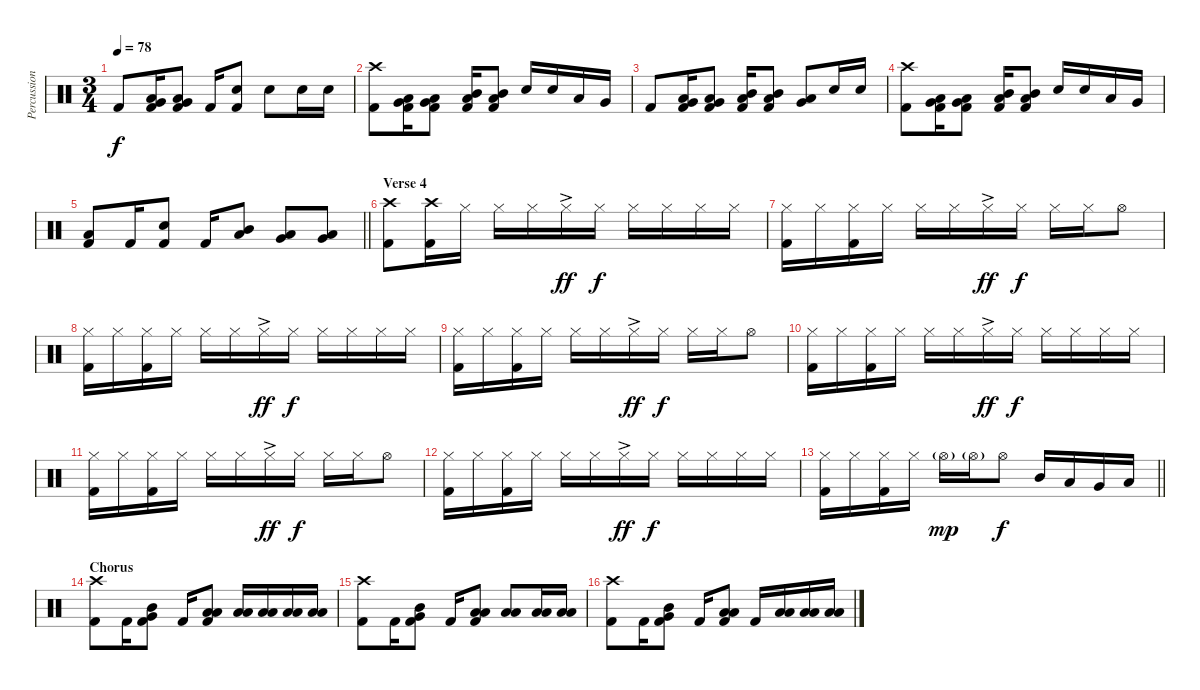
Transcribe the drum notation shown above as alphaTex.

\track ("Percussion" "Percussion") {instrument percussion}
\staff {score}
\articulation defaults
\ts (3 4)
\tempo 78
\clef neutral
\ks c "Kick (hit) 2".8{dy f}
("Low Tom (hit)" "Very Low Tom (hit)" "Kick (hit) 2").16 ("Low Tom (hit)" "Very Low Tom (hit)" "Kick (hit) 2").8 "Kick (hit) 2".16 ("Electric Snare (hit)" "Kick (hit) 2").8 "Electric Snare (hit)".8 "Electric Snare (hit)".16 "Electric Snare (hit)".16 |
("Crash high (hit)" "Kick (hit) 2").8 ("Low Tom (hit)" "Very Low Tom (hit)" "Kick (hit) 2").16 ("Low Tom (hit)" "Very Low Tom (hit)" "Kick (hit) 2").8 ("Mid Tom (hit)" "Low Tom (hit)" "Kick (hit) 2").16 ("Mid Tom (hit)" "Low Tom (hit)" "Kick (hit) 2").8 "Electric Snare (hit)".16 "Electric Snare (hit)".16 "Low Tom (hit)".16 "Very Low Tom (hit)".16 |
"Kick (hit) 2".8 ("Low Tom (hit)" "Very Low Tom (hit)" "Kick (hit) 2").16 ("Low Tom (hit)" "Very Low Tom (hit)" "Kick (hit) 2").8 ("Mid Tom (hit)" "Low Tom (hit)" "Kick (hit) 2").16 ("Mid Tom (hit)" "Low Tom (hit)" "Kick (hit) 2").8 ("Low Tom (hit)" "Very Low Tom (hit)").8 "Electric Snare (hit)".16 "Electric Snare (hit)".16 |
("Crash high (hit)" "Kick (hit) 2").8 ("Low Tom (hit)" "Very Low Tom (hit)" "Kick (hit) 2").16 ("Low Tom (hit)" "Very Low Tom (hit)" "Kick (hit) 2").8 ("Mid Tom (hit)" "Low Tom (hit)" "Kick (hit) 2").16 ("Mid Tom (hit)" "Low Tom (hit)" "Kick (hit) 2").8 "Electric Snare (hit)".16 "Electric Snare (hit)".16 "Low Tom (hit)".16 "Very Low Tom (hit)".16 |
\barLineRight lightlight
("Low Floor Tom (hit)" "Kick (hit) 2").8 "Kick (hit) 2".16 ("Electric Snare (hit)" "Kick (hit) 2").8 "Kick (hit) 2".16 ("Mid Tom (hit)" "Low Tom (hit)").8 ("Low Tom (hit)" "Very Low Tom (hit)").8 ("Very Low Tom (hit)" "Low Floor Tom (hit)").8 |
\section ("" "Verse 4")
("Crash high (hit)" "Kick (hit) 2").8 ("Crash high (hit)" "Kick (hit) 2").16 "Hi-Hat (closed)".16 "Hi-Hat (closed)".16 "Hi-Hat (closed)".16 "Hi-Hat (closed)"{ac}.16{dy ff} "Hi-Hat (closed)".16{dy f} "Hi-Hat (closed)".16 "Hi-Hat (closed)".16 "Hi-Hat (closed)".16 "Hi-Hat (closed)".16 |
("Hi-Hat (closed)" "Kick (hit) 2").16 "Hi-Hat (closed)".16 ("Hi-Hat (closed)" "Kick (hit) 2").16 "Hi-Hat (closed)".16 "Hi-Hat (closed)".16 "Hi-Hat (closed)".16 "Hi-Hat (closed)"{ac}.16{dy ff} "Hi-Hat (closed)".16{dy f} "Hi-Hat (closed)".16 "Hi-Hat (closed)".16 "Hi-Hat (open)".8 |
("Hi-Hat (closed)" "Kick (hit) 2").16 "Hi-Hat (closed)".16 ("Hi-Hat (closed)" "Kick (hit) 2").16 "Hi-Hat (closed)".16 "Hi-Hat (closed)".16 "Hi-Hat (closed)".16 "Hi-Hat (closed)"{ac}.16{dy ff} "Hi-Hat (closed)".16{dy f} "Hi-Hat (closed)".16 "Hi-Hat (closed)".16 "Hi-Hat (closed)".16 "Hi-Hat (closed)".16 |
("Hi-Hat (closed)" "Kick (hit) 2").16 "Hi-Hat (closed)".16 ("Hi-Hat (closed)" "Kick (hit) 2").16 "Hi-Hat (closed)".16 "Hi-Hat (closed)".16 "Hi-Hat (closed)".16 "Hi-Hat (closed)"{ac}.16{dy ff} "Hi-Hat (closed)".16{dy f} "Hi-Hat (closed)".16 "Hi-Hat (closed)".16 "Hi-Hat (open)".8 |
("Hi-Hat (closed)" "Kick (hit) 2").16 "Hi-Hat (closed)".16 ("Hi-Hat (closed)" "Kick (hit) 2").16 "Hi-Hat (closed)".16 "Hi-Hat (closed)".16 "Hi-Hat (closed)".16 "Hi-Hat (closed)"{ac}.16{dy ff} "Hi-Hat (closed)".16{dy f} "Hi-Hat (closed)".16 "Hi-Hat (closed)".16 "Hi-Hat (closed)".16 "Hi-Hat (closed)".16 |
("Hi-Hat (closed)" "Kick (hit) 2").16 "Hi-Hat (closed)".16 ("Hi-Hat (closed)" "Kick (hit) 2").16 "Hi-Hat (closed)".16 "Hi-Hat (closed)".16 "Hi-Hat (closed)".16 "Hi-Hat (closed)"{ac}.16{dy ff} "Hi-Hat (closed)".16{dy f} "Hi-Hat (closed)".16 "Hi-Hat (closed)".16 "Hi-Hat (open)".8 |
("Hi-Hat (closed)" "Kick (hit) 2").16 "Hi-Hat (closed)".16 ("Hi-Hat (closed)" "Kick (hit) 2").16 "Hi-Hat (closed)".16 "Hi-Hat (closed)".16 "Hi-Hat (closed)".16 "Hi-Hat (closed)"{ac}.16{dy ff} "Hi-Hat (closed)".16{dy f} "Hi-Hat (closed)".16 "Hi-Hat (closed)".16 "Hi-Hat (closed)".16 "Hi-Hat (closed)".16 |
\barLineRight lightlight
("Hi-Hat (closed)" "Kick (hit) 2").16 "Hi-Hat (closed)".16 ("Hi-Hat (closed)" "Kick (hit) 2").16 "Hi-Hat (closed)".16 "Hi-Hat (open)"{g}.16{dy mp} "Hi-Hat (open)"{g}.16 "Hi-Hat (open)".8{dy f} "Mid Tom (hit)".16 "Low Tom (hit)".16 "Very Low Tom (hit)".16 "Low Floor Tom (hit)".16 |
\section ("" "Chorus")
("Crash high (hit)" "Kick (hit) 2").8 "Kick (hit) 2".16 ("Mid Tom (hit)" "Very Low Tom (hit)" "Kick (hit) 2").8 "Kick (hit) 2".16 ("Low Tom (hit)" "Low Floor Tom (hit)" "Kick (hit) 2").8 ("Low Tom (hit)" "Low Floor Tom (hit)").16 ("Low Tom (hit)" "Low Floor Tom (hit)").16 ("Low Tom (hit)" "Low Floor Tom (hit)").16 ("Low Tom (hit)" "Low Floor Tom (hit)").16 |
("Crash high (hit)" "Kick (hit) 2").8 "Kick (hit) 2".16 ("Mid Tom (hit)" "Very Low Tom (hit)" "Kick (hit) 2").8 "Kick (hit) 2".16 ("Low Tom (hit)" "Low Floor Tom (hit)" "Kick (hit) 2").8 ("Low Tom (hit)" "Low Floor Tom (hit)").8 ("Low Tom (hit)" "Low Floor Tom (hit)").16 ("Low Tom (hit)" "Low Floor Tom (hit)").16 |
("Crash high (hit)" "Kick (hit) 2").8 "Kick (hit) 2".16 ("Mid Tom (hit)" "Very Low Tom (hit)" "Kick (hit) 2").8 "Kick (hit) 2".16 ("Low Tom (hit)" "Low Floor Tom (hit)" "Kick (hit) 2").8 "Kick (hit) 2".16 ("Low Tom (hit)" "Low Floor Tom (hit)").16 ("Low Tom (hit)" "Low Floor Tom (hit)").16 ("Low Tom (hit)" "Low Floor Tom (hit)").16
